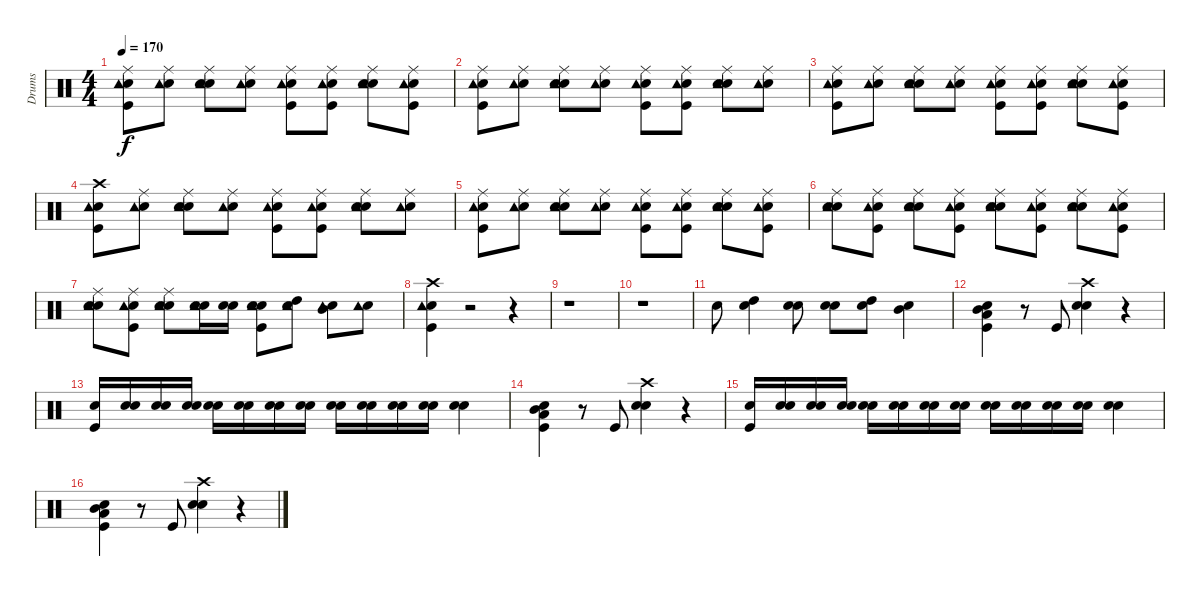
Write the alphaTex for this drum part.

\track ("Drums" "Drums") {instrument percussion}
\staff {score}
\articulation defaults
\ts (4 4)
\tempo 170
\clef neutral
\ks c
("Snare (hit)" "Kick (hit)" "Tambourine (hit)" "Ride (middle)").8{dy f} ("Snare (hit)" "Tambourine (hit)" "Ride (middle)").8 ("Snare (hit)" "Tambourine (hit)" "Electric Snare (hit)" "Ride (middle)").8 ("Snare (hit)" "Tambourine (hit)" "Ride (middle)").8 ("Snare (hit)" "Kick (hit)" "Tambourine (hit)" "Ride (middle)").8 ("Snare (hit)" "Kick (hit)" "Tambourine (hit)" "Ride (middle)").8 ("Snare (hit)" "Tambourine (hit)" "Electric Snare (hit)" "Ride (middle)").8 ("Snare (hit)" "Kick (hit)" "Tambourine (hit)" "Ride (middle)").8 |
("Snare (hit)" "Kick (hit)" "Tambourine (hit)" "Ride (middle)").8 ("Snare (hit)" "Tambourine (hit)" "Ride (middle)").8 ("Snare (hit)" "Tambourine (hit)" "Electric Snare (hit)" "Ride (middle)").8 ("Snare (hit)" "Tambourine (hit)" "Ride (middle)").8 ("Snare (hit)" "Kick (hit)" "Tambourine (hit)" "Ride (middle)").8 ("Snare (hit)" "Kick (hit)" "Tambourine (hit)" "Ride (middle)").8 ("Snare (hit)" "Tambourine (hit)" "Electric Snare (hit)" "Ride (middle)").8 ("Snare (hit)" "Tambourine (hit)" "Ride (middle)").8 |
("Snare (hit)" "Kick (hit)" "Tambourine (hit)" "Ride (middle)").8 ("Snare (hit)" "Tambourine (hit)" "Ride (middle)").8 ("Snare (hit)" "Tambourine (hit)" "Electric Snare (hit)" "Ride (middle)").8 ("Snare (hit)" "Tambourine (hit)" "Ride (middle)").8 ("Snare (hit)" "Kick (hit)" "Tambourine (hit)" "Ride (middle)").8 ("Snare (hit)" "Kick (hit)" "Tambourine (hit)" "Ride (middle)").8 ("Snare (hit)" "Tambourine (hit)" "Electric Snare (hit)" "Ride (middle)").8 ("Snare (hit)" "Kick (hit)" "Tambourine (hit)" "Ride (middle)").8 |
("Snare (hit)" "Kick (hit)" "Tambourine (hit)" "Crash high (hit)").8 ("Snare (hit)" "Tambourine (hit)" "Ride (middle)").8 ("Snare (hit)" "Tambourine (hit)" "Electric Snare (hit)" "Ride (middle)").8 ("Snare (hit)" "Tambourine (hit)" "Ride (middle)").8 ("Snare (hit)" "Kick (hit)" "Tambourine (hit)" "Ride (middle)").8 ("Snare (hit)" "Kick (hit)" "Tambourine (hit)" "Ride (middle)").8 ("Snare (hit)" "Tambourine (hit)" "Electric Snare (hit)" "Ride (middle)").8 ("Snare (hit)" "Tambourine (hit)" "Ride (middle)").8 |
("Snare (hit)" "Tambourine (hit)" "Kick (hit)" "Ride (middle)").8 ("Snare (hit)" "Tambourine (hit)" "Ride (middle)").8 ("Snare (hit)" "Tambourine (hit)" "Electric Snare (hit)" "Ride (middle)").8 ("Snare (hit)" "Tambourine (hit)" "Ride (middle)").8 ("Snare (hit)" "Tambourine (hit)" "Kick (hit)" "Ride (middle)").8 ("Snare (hit)" "Tambourine (hit)" "Kick (hit)" "Ride (middle)").8 ("Snare (hit)" "Tambourine (hit)" "Electric Snare (hit)" "Ride (middle)").8 ("Snare (hit)" "Tambourine (hit)" "Kick (hit)" "Ride (middle)").8 |
("Snare (hit)" "Tambourine (hit)" "Electric Snare (hit)" "Ride (middle)").8 ("Snare (hit)" "Tambourine (hit)" "Kick (hit)" "Ride (middle)").8 ("Snare (hit)" "Tambourine (hit)" "Electric Snare (hit)" "Ride (middle)").8 ("Snare (hit)" "Tambourine (hit)" "Kick (hit)" "Ride (middle)").8 ("Snare (hit)" "Tambourine (hit)" "Electric Snare (hit)" "Ride (middle)").8 ("Snare (hit)" "Tambourine (hit)" "Kick (hit)" "Ride (middle)").8 ("Snare (hit)" "Tambourine (hit)" "Electric Snare (hit)" "Ride (middle)").8 ("Snare (hit)" "Tambourine (hit)" "Kick (hit)" "Ride (middle)").8 |
("Snare (hit)" "Tambourine (hit)" "Electric Snare (hit)" "Ride (middle)").8 ("Snare (hit)" "Tambourine (hit)" "Kick (hit)" "Ride (middle)").8 ("Snare (hit)" "Tambourine (hit)" "Electric Snare (hit)" "Ride (middle)").8 ("Snare (hit)" "Tambourine (hit)" "Electric Snare (hit)").16 ("Snare (hit)" "Electric Snare (hit)").16 ("Snare (hit)" "Tambourine (hit)" "Kick (hit)" "Electric Snare (hit)").8 ("Snare (hit)" "Tambourine (hit)" "High Tom (hit)").8 ("Snare (hit)" "Tambourine (hit)" "Mid Tom (hit)").8 ("Snare (hit)" "Tambourine (hit)").8 |
("Snare (hit)" "Tambourine (hit)" "Kick (hit)" "Crash high (hit)").4 r.2 r.4 |
r.1 |
r.1 |
"Electric Snare (hit)".8 ("Snare (hit)" "High Tom (hit)").4 ("Snare (hit)" "Electric Snare (hit)").8 ("Snare (hit)" "Electric Snare (hit)").8 ("Snare (hit)" "High Tom (hit)").8 ("Snare (hit)" "Mid Tom (hit)").4 |
("Snare (hit)" "Kick (hit)" "Low Tom (hit)" "Mid Tom (hit)").4 r.8 "Kick (hit)".8 ("Snare (hit)" "Electric Snare (hit)" "Crash high (hit)").4 r.4 |
("Kick (hit)" "Electric Snare (hit)").16 ("Snare (hit)" "Electric Snare (hit)").16 ("Snare (hit)" "Electric Snare (hit)").16 ("Snare (hit)" "Electric Snare (hit)").16 ("Snare (hit)" "Electric Snare (hit)").16 ("Snare (hit)" "Electric Snare (hit)").16 ("Snare (hit)" "Electric Snare (hit)").16 ("Snare (hit)" "Electric Snare (hit)").16 ("Snare (hit)" "Electric Snare (hit)").16 ("Snare (hit)" "Electric Snare (hit)").16 ("Snare (hit)" "Electric Snare (hit)").16 ("Snare (hit)" "Electric Snare (hit)").16 ("Snare (hit)" "Electric Snare (hit)").4 |
("Snare (hit)" "Kick (hit)" "Low Tom (hit)" "Mid Tom (hit)").4 r.8 "Kick (hit)".8 ("Snare (hit)" "Electric Snare (hit)" "Crash high (hit)").4 r.4 |
("Kick (hit)" "Electric Snare (hit)").16 ("Snare (hit)" "Electric Snare (hit)").16 ("Snare (hit)" "Electric Snare (hit)").16 ("Snare (hit)" "Electric Snare (hit)").16 ("Snare (hit)" "Electric Snare (hit)").16 ("Snare (hit)" "Electric Snare (hit)").16 ("Snare (hit)" "Electric Snare (hit)").16 ("Snare (hit)" "Electric Snare (hit)").16 ("Snare (hit)" "Electric Snare (hit)").16 ("Snare (hit)" "Electric Snare (hit)").16 ("Snare (hit)" "Electric Snare (hit)").16 ("Snare (hit)" "Electric Snare (hit)").16 ("Snare (hit)" "Electric Snare (hit)").4 |
("Snare (hit)" "Kick (hit)" "Low Tom (hit)" "Mid Tom (hit)").4 r.8 "Kick (hit)".8 ("Snare (hit)" "Electric Snare (hit)" "Crash high (hit)").4 r.4
